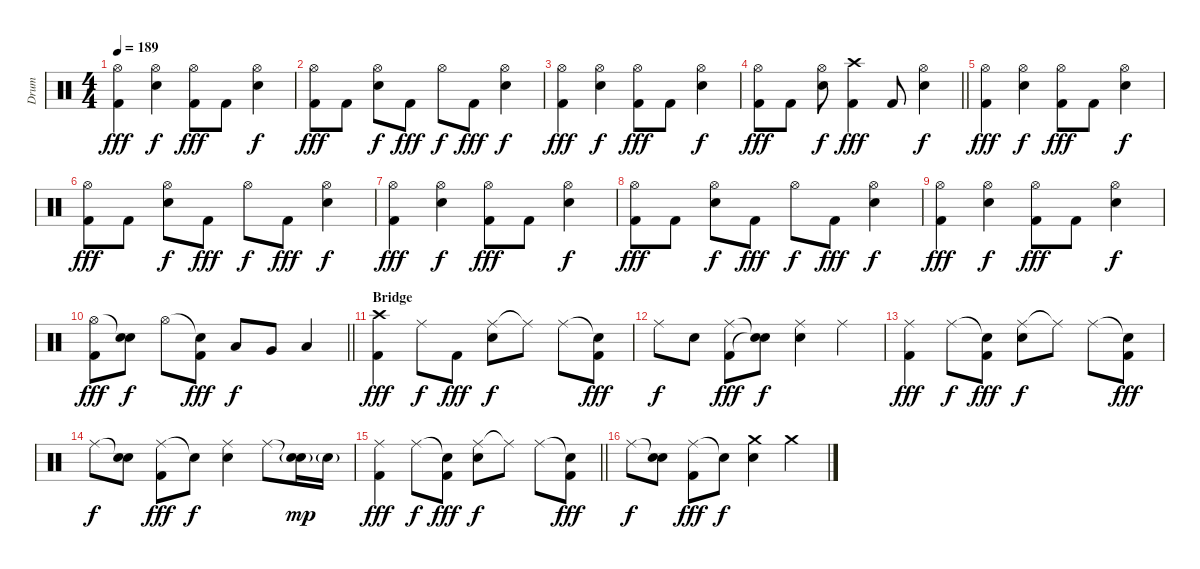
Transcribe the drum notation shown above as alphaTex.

\track ("Drum" "Drum") {instrument percussion}
\staff {score}
\articulation defaults
\ts (4 4)
\tempo 189
\clef neutral
\ks c
("Hi-Hat (open)" "Kick (hit) 2").4{dy fff} ("Hi-Hat (open)" "Electric Snare (hit)").4{dy f} ("Hi-Hat (open)" "Kick (hit) 2").8{dy fff} "Kick (hit) 2".8 ("Hi-Hat (open)" "Electric Snare (hit)").4{dy f} |
("Hi-Hat (open)" "Kick (hit) 2").8{dy fff} "Kick (hit) 2".8 ("Hi-Hat (open)" "Electric Snare (hit)").8{dy f} "Kick (hit) 2".8{dy fff} "Hi-Hat (open)".8{dy f} "Kick (hit) 2".8{dy fff} ("Hi-Hat (open)" "Electric Snare (hit)").4{dy f} |
("Hi-Hat (open)" "Kick (hit) 2").4{dy fff} ("Hi-Hat (open)" "Electric Snare (hit)").4{dy f} ("Hi-Hat (open)" "Kick (hit) 2").8{dy fff} "Kick (hit) 2".8 ("Hi-Hat (open)" "Electric Snare (hit)").4{dy f} |
\barLineRight lightlight
("Hi-Hat (open)" "Kick (hit) 2").8{dy fff} "Kick (hit) 2".8 ("Hi-Hat (open)" "Electric Snare (hit)").8{dy f} ("Crash high (hit)" "Kick (hit) 2").4{dy fff} "Kick (hit) 2".8 ("Hi-Hat (open)" "Electric Snare (hit)").4{dy f} |
("Hi-Hat (open)" "Kick (hit) 2").4{dy fff} ("Hi-Hat (open)" "Electric Snare (hit)").4{dy f} ("Hi-Hat (open)" "Kick (hit) 2").8{dy fff} "Kick (hit) 2".8 ("Hi-Hat (open)" "Electric Snare (hit)").4{dy f} |
("Hi-Hat (open)" "Kick (hit) 2").8{dy fff} "Kick (hit) 2".8 ("Hi-Hat (open)" "Electric Snare (hit)").8{dy f} "Kick (hit) 2".8{dy fff} "Hi-Hat (open)".8{dy f} "Kick (hit) 2".8{dy fff} ("Hi-Hat (open)" "Electric Snare (hit)").4{dy f} |
("Hi-Hat (open)" "Kick (hit) 2").4{dy fff} ("Hi-Hat (open)" "Electric Snare (hit)").4{dy f} ("Hi-Hat (open)" "Kick (hit) 2").8{dy fff} "Kick (hit) 2".8 ("Hi-Hat (open)" "Electric Snare (hit)").4{dy f} |
("Hi-Hat (open)" "Kick (hit) 2").8{dy fff} "Kick (hit) 2".8 ("Hi-Hat (open)" "Electric Snare (hit)").8{dy f} "Kick (hit) 2".8{dy fff} "Hi-Hat (open)".8{dy f} "Kick (hit) 2".8{dy fff} ("Hi-Hat (open)" "Electric Snare (hit)").4{dy f} |
("Hi-Hat (open)" "Kick (hit) 2").4{dy fff} ("Hi-Hat (open)" "Electric Snare (hit)").4{dy f} ("Hi-Hat (open)" "Kick (hit) 2").8{dy fff} "Kick (hit) 2".8 ("Hi-Hat (open)" "Electric Snare (hit)").4{dy f} |
\barLineRight lightlight
("Hi-Hat (open)" "Kick (hit) 2").8{dy fff} ("Snare (hit)"{t} "Electric Snare (hit)").8{dy f} "Hi-Hat (open)".8 ("Snare (hit)"{t} "Kick (hit) 2").8{dy fff} "Low Tom (hit)".8{dy f} "Very Low Tom (hit)".8 "Low Floor Tom (hit)".4 |
\section ("" "Bridge")
("Crash high (hit)" "Kick (hit) 2").4{dy fff} "Ride (middle)".8{dy f} "Kick (hit) 2".8{dy fff} ("Ride (middle)" "Electric Snare (hit)").8{dy f} "Ride (middle)"{t}.8 "Ride (middle)".8 ("Snare (hit)"{t} "Kick (hit) 2").8{dy fff} |
"Ride (middle)".8{dy f} "Electric Snare (hit)".8 ("Ride (middle)" "Kick (hit) 2").8{dy fff} ("Snare (hit)"{t} "Snare (hit)"{t}).8{dy f} ("Ride (middle)" "Electric Snare (hit)").4 "Ride (middle)".4 |
("Ride (middle)" "Kick (hit) 2").4{dy fff} "Ride (middle)".8{dy f} ("Snare (hit)"{t} "Kick (hit) 2").8{dy fff} ("Ride (middle)" "Electric Snare (hit)").8{dy f} "Ride (middle)"{t}.8 "Ride (middle)".8 ("Snare (hit)"{t} "Kick (hit) 2").8{dy fff} |
"Ride (middle)".8{dy f} ("Snare (hit)"{t} "Electric Snare (hit)").8 ("Ride (middle)" "Kick (hit) 2").8{dy fff} "Snare (hit)"{t}.8{dy f} ("Ride (middle)" "Electric Snare (hit)").4 "Ride (middle)".8 ("Snare (hit)"{t} "Electric Snare (hit)"{g}).16{dy mp} "Electric Snare (hit)"{g}.16 |
\barLineRight lightlight
("Ride (middle)" "Kick (hit) 2").4{dy fff} "Ride (middle)".8{dy f} ("Snare (hit)"{t} "Kick (hit) 2").8{dy fff} ("Ride (middle)" "Electric Snare (hit)").8{dy f} "Ride (middle)"{t}.8 "Ride (middle)".8 ("Snare (hit)"{t} "Kick (hit) 2").8{dy fff} |
"Ride (middle)".8{dy f} ("Snare (hit)"{t} "Electric Snare (hit)").8 ("Ride (middle)" "Kick (hit) 2").8{dy fff} "Snare (hit)"{t}.8{dy f} ("Crash medium (hit)" "Electric Snare (hit)").4 "Crash medium (hit)".4
